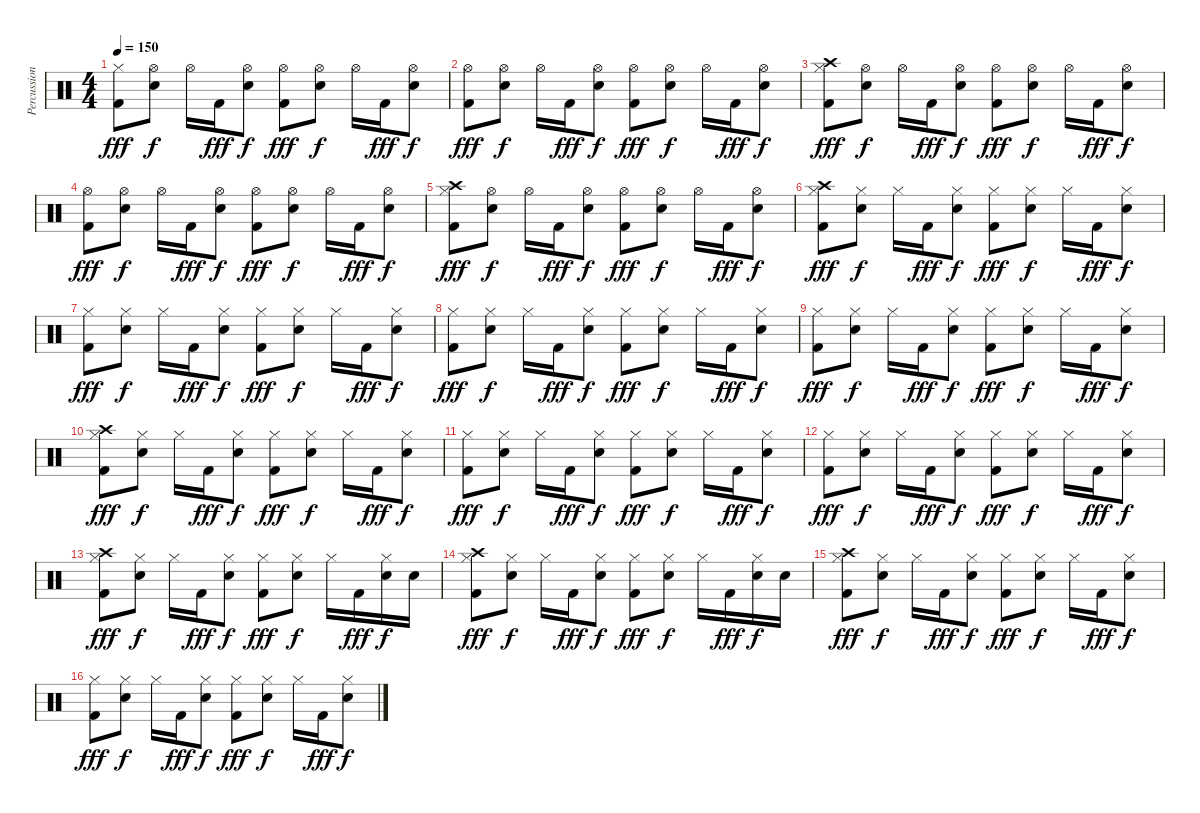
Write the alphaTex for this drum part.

\track ("Percussions" "Percussion") {instrument percussion}
\staff {score}
\articulation defaults
\ts (4 4)
\tempo 150
\clef neutral
\ks c
("Hi-Hat (closed)" "Kick (hit) 2").8{dy fff} ("Hi-Hat (open)" "Snare (hit) 2").8{dy f} "Hi-Hat (open)".16 "Kick (hit) 2".16{dy fff} ("Hi-Hat (open)" "Snare (hit) 2").8{dy f} ("Hi-Hat (open)" "Kick (hit) 2").8{dy fff} ("Hi-Hat (open)" "Snare (hit) 2").8{dy f} "Hi-Hat (open)".16 "Kick (hit) 2".16{dy fff} ("Hi-Hat (open)" "Snare (hit) 2").8{dy f} |
("Hi-Hat (open)" "Kick (hit) 2").8{dy fff} ("Hi-Hat (open)" "Snare (hit) 2").8{dy f} "Hi-Hat (open)".16 "Kick (hit) 2".16{dy fff} ("Hi-Hat (open)" "Snare (hit) 2").8{dy f} ("Hi-Hat (open)" "Kick (hit) 2").8{dy fff} ("Hi-Hat (open)" "Snare (hit) 2").8{dy f} "Hi-Hat (open)".16 "Kick (hit) 2".16{dy fff} ("Hi-Hat (open)" "Snare (hit) 2").8{dy f} |
("Crash high (hit)" "Hi-Hat (closed)" "Kick (hit) 2").8{dy fff} ("Hi-Hat (open)" "Snare (hit) 2").8{dy f} "Hi-Hat (open)".16 "Kick (hit) 2".16{dy fff} ("Hi-Hat (open)" "Snare (hit) 2").8{dy f} ("Hi-Hat (open)" "Kick (hit) 2").8{dy fff} ("Hi-Hat (open)" "Snare (hit) 2").8{dy f} "Hi-Hat (open)".16 "Kick (hit) 2".16{dy fff} ("Hi-Hat (open)" "Snare (hit) 2").8{dy f} |
("Hi-Hat (open)" "Kick (hit) 2").8{dy fff} ("Hi-Hat (open)" "Snare (hit) 2").8{dy f} "Hi-Hat (open)".16 "Kick (hit) 2".16{dy fff} ("Hi-Hat (open)" "Snare (hit) 2").8{dy f} ("Hi-Hat (open)" "Kick (hit) 2").8{dy fff} ("Hi-Hat (open)" "Snare (hit) 2").8{dy f} "Hi-Hat (open)".16 "Kick (hit) 2".16{dy fff} ("Hi-Hat (open)" "Snare (hit) 2").8{dy f} |
("Crash high (hit)" "Hi-Hat (closed)" "Kick (hit) 2").8{dy fff} ("Hi-Hat (open)" "Snare (hit) 2").8{dy f} "Hi-Hat (open)".16 "Kick (hit) 2".16{dy fff} ("Hi-Hat (open)" "Snare (hit) 2").8{dy f} ("Hi-Hat (open)" "Kick (hit) 2").8{dy fff} ("Hi-Hat (open)" "Snare (hit) 2").8{dy f} "Hi-Hat (open)".16 "Kick (hit) 2".16{dy fff} ("Hi-Hat (open)" "Snare (hit) 2").8{dy f} |
("Crash high (hit)" "Hi-Hat (closed)" "Kick (hit) 2").8{dy fff} ("Hi-Hat (closed)" "Snare (hit) 2").8{dy f} "Hi-Hat (closed)".16 "Kick (hit) 2".16{dy fff} ("Hi-Hat (closed)" "Snare (hit) 2").8{dy f} ("Hi-Hat (closed)" "Kick (hit) 2").8{dy fff} ("Hi-Hat (closed)" "Snare (hit) 2").8{dy f} "Hi-Hat (closed)".16 "Kick (hit) 2".16{dy fff} ("Hi-Hat (closed)" "Snare (hit) 2").8{dy f} |
("Hi-Hat (closed)" "Kick (hit) 2").8{dy fff} ("Hi-Hat (closed)" "Snare (hit) 2").8{dy f} "Hi-Hat (closed)".16 "Kick (hit) 2".16{dy fff} ("Hi-Hat (closed)" "Snare (hit) 2").8{dy f} ("Hi-Hat (closed)" "Kick (hit) 2").8{dy fff} ("Hi-Hat (closed)" "Snare (hit) 2").8{dy f} "Hi-Hat (closed)".16 "Kick (hit) 2".16{dy fff} ("Hi-Hat (closed)" "Snare (hit) 2").8{dy f} |
("Hi-Hat (closed)" "Kick (hit) 2").8{dy fff} ("Hi-Hat (closed)" "Snare (hit) 2").8{dy f} "Hi-Hat (closed)".16 "Kick (hit) 2".16{dy fff} ("Hi-Hat (closed)" "Snare (hit) 2").8{dy f} ("Hi-Hat (closed)" "Kick (hit) 2").8{dy fff} ("Hi-Hat (closed)" "Snare (hit) 2").8{dy f} "Hi-Hat (closed)".16 "Kick (hit) 2".16{dy fff} ("Hi-Hat (closed)" "Snare (hit) 2").8{dy f} |
("Hi-Hat (closed)" "Kick (hit) 2").8{dy fff} ("Hi-Hat (closed)" "Snare (hit) 2").8{dy f} "Hi-Hat (closed)".16 "Kick (hit) 2".16{dy fff} ("Hi-Hat (closed)" "Snare (hit) 2").8{dy f} ("Hi-Hat (closed)" "Kick (hit) 2").8{dy fff} ("Hi-Hat (closed)" "Snare (hit) 2").8{dy f} "Hi-Hat (closed)".16 "Kick (hit) 2".16{dy fff} ("Hi-Hat (closed)" "Snare (hit) 2").8{dy f} |
("Crash high (hit)" "Hi-Hat (closed)" "Kick (hit) 2").8{dy fff} ("Hi-Hat (closed)" "Snare (hit) 2").8{dy f} "Hi-Hat (closed)".16 "Kick (hit) 2".16{dy fff} ("Hi-Hat (closed)" "Snare (hit) 2").8{dy f} ("Hi-Hat (closed)" "Kick (hit) 2").8{dy fff} ("Hi-Hat (closed)" "Snare (hit) 2").8{dy f} "Hi-Hat (closed)".16 "Kick (hit) 2".16{dy fff} ("Hi-Hat (closed)" "Snare (hit) 2").8{dy f} |
("Hi-Hat (closed)" "Kick (hit) 2").8{dy fff} ("Hi-Hat (closed)" "Snare (hit) 2").8{dy f} "Hi-Hat (closed)".16 "Kick (hit) 2".16{dy fff} ("Hi-Hat (closed)" "Snare (hit) 2").8{dy f} ("Hi-Hat (closed)" "Kick (hit) 2").8{dy fff} ("Hi-Hat (closed)" "Snare (hit) 2").8{dy f} "Hi-Hat (closed)".16 "Kick (hit) 2".16{dy fff} ("Hi-Hat (closed)" "Snare (hit) 2").8{dy f} |
("Hi-Hat (closed)" "Kick (hit) 2").8{dy fff} ("Hi-Hat (closed)" "Snare (hit) 2").8{dy f} "Hi-Hat (closed)".16 "Kick (hit) 2".16{dy fff} ("Hi-Hat (closed)" "Snare (hit) 2").8{dy f} ("Hi-Hat (closed)" "Kick (hit) 2").8{dy fff} ("Hi-Hat (closed)" "Snare (hit) 2").8{dy f} "Hi-Hat (closed)".16 "Kick (hit) 2".16{dy fff} ("Hi-Hat (closed)" "Snare (hit) 2").8{dy f} |
("Crash high (hit)" "Hi-Hat (closed)" "Kick (hit) 2").8{dy fff} ("Hi-Hat (closed)" "Snare (hit) 2").8{dy f} "Hi-Hat (closed)".16 "Kick (hit) 2".16{dy fff} ("Hi-Hat (closed)" "Snare (hit) 2").8{dy f} ("Hi-Hat (closed)" "Kick (hit) 2").8{dy fff} ("Hi-Hat (closed)" "Snare (hit) 2").8{dy f} "Hi-Hat (closed)".16 "Kick (hit) 2".16{dy fff} ("Hi-Hat (closed)" "Snare (hit) 2").16{dy f} "Snare (hit) 2".16 |
("Crash high (hit)" "Hi-Hat (closed)" "Kick (hit) 2").8{dy fff} ("Hi-Hat (closed)" "Snare (hit) 2").8{dy f} "Hi-Hat (closed)".16 "Kick (hit) 2".16{dy fff} ("Hi-Hat (closed)" "Snare (hit) 2").8{dy f} ("Hi-Hat (closed)" "Kick (hit) 2").8{dy fff} ("Hi-Hat (closed)" "Snare (hit) 2").8{dy f} "Hi-Hat (closed)".16 "Kick (hit) 2".16{dy fff} ("Hi-Hat (closed)" "Snare (hit) 2").16{dy f} "Snare (hit) 2".16 |
("Crash high (hit)" "Hi-Hat (closed)" "Kick (hit) 2").8{dy fff} ("Hi-Hat (closed)" "Snare (hit) 2").8{dy f} "Hi-Hat (closed)".16 "Kick (hit) 2".16{dy fff} ("Hi-Hat (closed)" "Snare (hit) 2").8{dy f} ("Hi-Hat (closed)" "Kick (hit) 2").8{dy fff} ("Hi-Hat (closed)" "Snare (hit) 2").8{dy f} "Hi-Hat (closed)".16 "Kick (hit) 2".16{dy fff} ("Hi-Hat (closed)" "Snare (hit) 2").8{dy f} |
("Hi-Hat (closed)" "Kick (hit) 2").8{dy fff} ("Hi-Hat (closed)" "Snare (hit) 2").8{dy f} "Hi-Hat (closed)".16 "Kick (hit) 2".16{dy fff} ("Hi-Hat (closed)" "Snare (hit) 2").8{dy f} ("Hi-Hat (closed)" "Kick (hit) 2").8{dy fff} ("Hi-Hat (closed)" "Snare (hit) 2").8{dy f} "Hi-Hat (closed)".16 "Kick (hit) 2".16{dy fff} ("Hi-Hat (closed)" "Snare (hit) 2").8{dy f}
